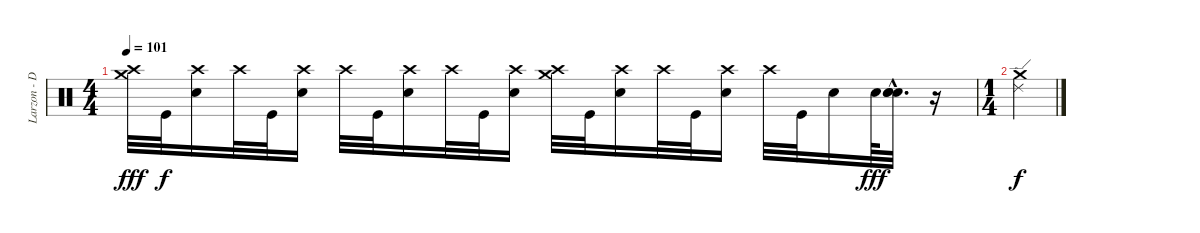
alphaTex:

\track ("Larzon - Drums" "Larzon - D") {instrument percussion}
\staff {score}
\articulation defaults
\ts (4 4)
\tempo 101
\clef neutral
\ks c
("Crash medium (hit)" "Crash high (hit)").32{dy fff} "Kick (hit)".32{dy f} ("Electric Snare (hit)" "Crash high (hit)").16 "Crash high (hit)".32 "Kick (hit)".32 ("Electric Snare (hit)" "Crash high (hit)").16 "Crash high (hit)".32 "Kick (hit)".32 ("Electric Snare (hit)" "Crash high (hit)").16 "Crash high (hit)".32 "Kick (hit)".32 ("Electric Snare (hit)" "Crash high (hit)").16 ("Crash medium (hit)" "Crash high (hit)").32 "Kick (hit)".32 ("Electric Snare (hit)" "Crash high (hit)").16 "Crash high (hit)".32 "Kick (hit)".32 ("Electric Snare (hit)" "Crash high (hit)").16 "Crash high (hit)".32 "Kick (hit)".32 "Electric Snare (hit)".16 "Electric Snare (hit)".64{dy fff} ("Electric Snare (hit)"{hac} "Electric Snare (hit)"{hac} "Electric Snare (hit)"{hac}).32{d} r.16 |
\ts (1 4)
("Crash medium (hit)" "Ride (edge) 2").4{dy f}
